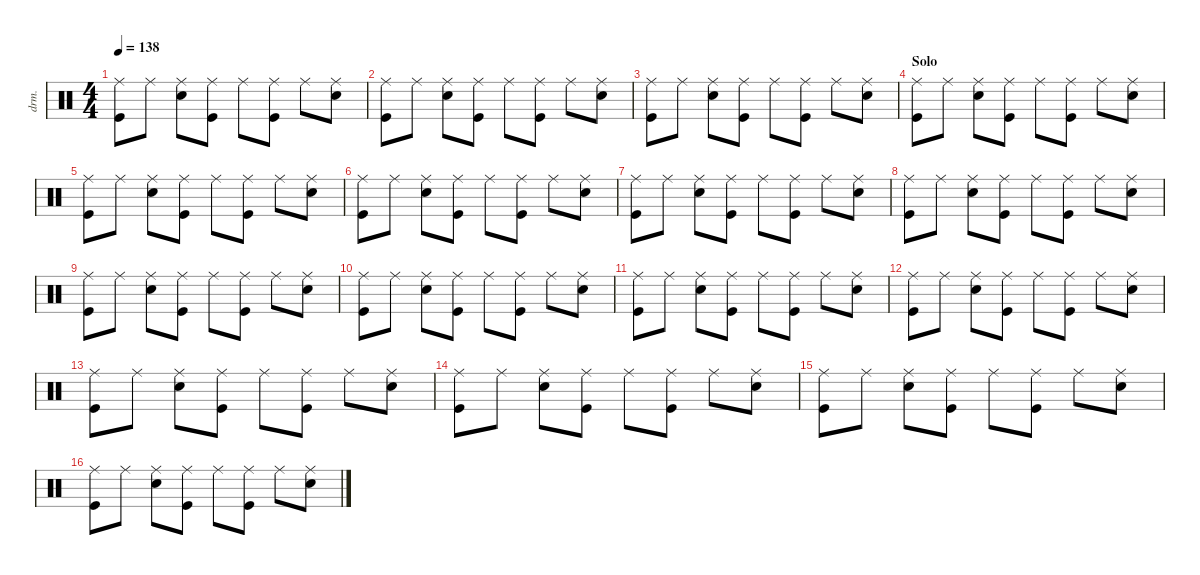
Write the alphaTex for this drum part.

\defaultSystemsLayout 4
\hideDynamics
\bracketExtendMode nobrackets
\otherSystemsTrackNameOrientation horizontal
\track ("Drums" "drm.") {instrument percussion}
\staff {score}
\articulation defaults
\ts (4 4)
\tempo 138
\clef neutral
\ks c
("Ride (middle)" "Kick (hit)").8{dy f beam Down} "Ride (middle)".8{beam Down} ("Ride (middle)" "Snare (hit) 2").8{beam Down} ("Ride (middle)" "Kick (hit)").8{beam Down} "Ride (middle)".8{beam Down} ("Ride (middle)" "Kick (hit)").8{beam Down} "Ride (middle)".8{beam Down} ("Ride (middle)" "Snare (hit) 2").8{beam Down} |
("Ride (middle)" "Kick (hit)").8{beam Down} "Ride (middle)".8{beam Down} ("Ride (middle)" "Snare (hit) 2").8{beam Down} ("Ride (middle)" "Kick (hit)").8{beam Down} "Ride (middle)".8{beam Down} ("Ride (middle)" "Kick (hit)").8{beam Down} "Ride (middle)".8{beam Down} ("Ride (middle)" "Snare (hit) 2").8{beam Down} |
("Ride (middle)" "Kick (hit)").8{beam Down} "Ride (middle)".8{beam Down} ("Ride (middle)" "Snare (hit) 2").8{beam Down} ("Ride (middle)" "Kick (hit)").8{beam Down} "Ride (middle)".8{beam Down} ("Ride (middle)" "Kick (hit)").8{beam Down} "Ride (middle)".8{beam Down} ("Ride (middle)" "Snare (hit) 2").8{beam Down} |
\section ("" "Solo")
("Ride (middle)" "Kick (hit)").8{beam Down} "Ride (middle)".8{beam Down} ("Ride (middle)" "Snare (hit) 2").8{beam Down} ("Ride (middle)" "Kick (hit)").8{beam Down} "Ride (middle)".8{beam Down} ("Ride (middle)" "Kick (hit)").8{beam Down} "Ride (middle)".8{beam Down} ("Ride (middle)" "Snare (hit) 2").8{beam Down} |
("Ride (middle)" "Kick (hit)").8{beam Down} "Ride (middle)".8{beam Down} ("Ride (middle)" "Snare (hit) 2").8{beam Down} ("Ride (middle)" "Kick (hit)").8{beam Down} "Ride (middle)".8{beam Down} ("Ride (middle)" "Kick (hit)").8{beam Down} "Ride (middle)".8{beam Down} ("Ride (middle)" "Snare (hit) 2").8{beam Down} |
("Ride (middle)" "Kick (hit)").8{beam Down} "Ride (middle)".8{beam Down} ("Ride (middle)" "Snare (hit) 2").8{beam Down} ("Ride (middle)" "Kick (hit)").8{beam Down} "Ride (middle)".8{beam Down} ("Ride (middle)" "Kick (hit)").8{beam Down} "Ride (middle)".8{beam Down} ("Ride (middle)" "Snare (hit) 2").8{beam Down} |
("Ride (middle)" "Kick (hit)").8{beam Down} "Ride (middle)".8{beam Down} ("Ride (middle)" "Snare (hit) 2").8{beam Down} ("Ride (middle)" "Kick (hit)").8{beam Down} "Ride (middle)".8{beam Down} ("Ride (middle)" "Kick (hit)").8{beam Down} "Ride (middle)".8{beam Down} ("Ride (middle)" "Snare (hit) 2").8{beam Down} |
("Ride (middle)" "Kick (hit)").8{beam Down} "Ride (middle)".8{beam Down} ("Ride (middle)" "Snare (hit) 2").8{beam Down} ("Ride (middle)" "Kick (hit)").8{beam Down} "Ride (middle)".8{beam Down} ("Ride (middle)" "Kick (hit)").8{beam Down} "Ride (middle)".8{beam Down} ("Ride (middle)" "Snare (hit) 2").8{beam Down} |
("Ride (middle)" "Kick (hit)").8{beam Down} "Ride (middle)".8{beam Down} ("Ride (middle)" "Snare (hit) 2").8{beam Down} ("Ride (middle)" "Kick (hit)").8{beam Down} "Ride (middle)".8{beam Down} ("Ride (middle)" "Kick (hit)").8{beam Down} "Ride (middle)".8{beam Down} ("Ride (middle)" "Snare (hit) 2").8{beam Down} |
("Ride (middle)" "Kick (hit)").8{beam Down} "Ride (middle)".8{beam Down} ("Ride (middle)" "Snare (hit) 2").8{beam Down} ("Ride (middle)" "Kick (hit)").8{beam Down} "Ride (middle)".8{beam Down} ("Ride (middle)" "Kick (hit)").8{beam Down} "Ride (middle)".8{beam Down} ("Ride (middle)" "Snare (hit) 2").8{beam Down} |
("Ride (middle)" "Kick (hit)").8{beam Down} "Ride (middle)".8{beam Down} ("Ride (middle)" "Snare (hit) 2").8{beam Down} ("Ride (middle)" "Kick (hit)").8{beam Down} "Ride (middle)".8{beam Down} ("Ride (middle)" "Kick (hit)").8{beam Down} "Ride (middle)".8{beam Down} ("Ride (middle)" "Snare (hit) 2").8{beam Down} |
("Ride (middle)" "Kick (hit)").8{beam Down} "Ride (middle)".8{beam Down} ("Ride (middle)" "Snare (hit) 2").8{beam Down} ("Ride (middle)" "Kick (hit)").8{beam Down} "Ride (middle)".8{beam Down} ("Ride (middle)" "Kick (hit)").8{beam Down} "Ride (middle)".8{beam Down} ("Ride (middle)" "Snare (hit) 2").8{beam Down} |
("Ride (middle)" "Kick (hit)").8{beam Down} "Ride (middle)".8{beam Down} ("Ride (middle)" "Snare (hit) 2").8{beam Down} ("Ride (middle)" "Kick (hit)").8{beam Down} "Ride (middle)".8{beam Down} ("Ride (middle)" "Kick (hit)").8{beam Down} "Ride (middle)".8{beam Down} ("Ride (middle)" "Snare (hit) 2").8{beam Down} |
("Ride (middle)" "Kick (hit)").8{beam Down} "Ride (middle)".8{beam Down} ("Ride (middle)" "Snare (hit) 2").8{beam Down} ("Ride (middle)" "Kick (hit)").8{beam Down} "Ride (middle)".8{beam Down} ("Ride (middle)" "Kick (hit)").8{beam Down} "Ride (middle)".8{beam Down} ("Ride (middle)" "Snare (hit) 2").8{beam Down} |
("Ride (middle)" "Kick (hit)").8{beam Down} "Ride (middle)".8{beam Down} ("Ride (middle)" "Snare (hit) 2").8{beam Down} ("Ride (middle)" "Kick (hit)").8{beam Down} "Ride (middle)".8{beam Down} ("Ride (middle)" "Kick (hit)").8{beam Down} "Ride (middle)".8{beam Down} ("Ride (middle)" "Snare (hit) 2").8{beam Down} |
("Ride (middle)" "Kick (hit)").8{beam Down} "Ride (middle)".8{beam Down} ("Ride (middle)" "Snare (hit) 2").8{beam Down} ("Ride (middle)" "Kick (hit)").8{beam Down} "Ride (middle)".8{beam Down} ("Ride (middle)" "Kick (hit)").8{beam Down} "Ride (middle)".8{beam Down} ("Ride (middle)" "Snare (hit) 2").8{beam Down}
